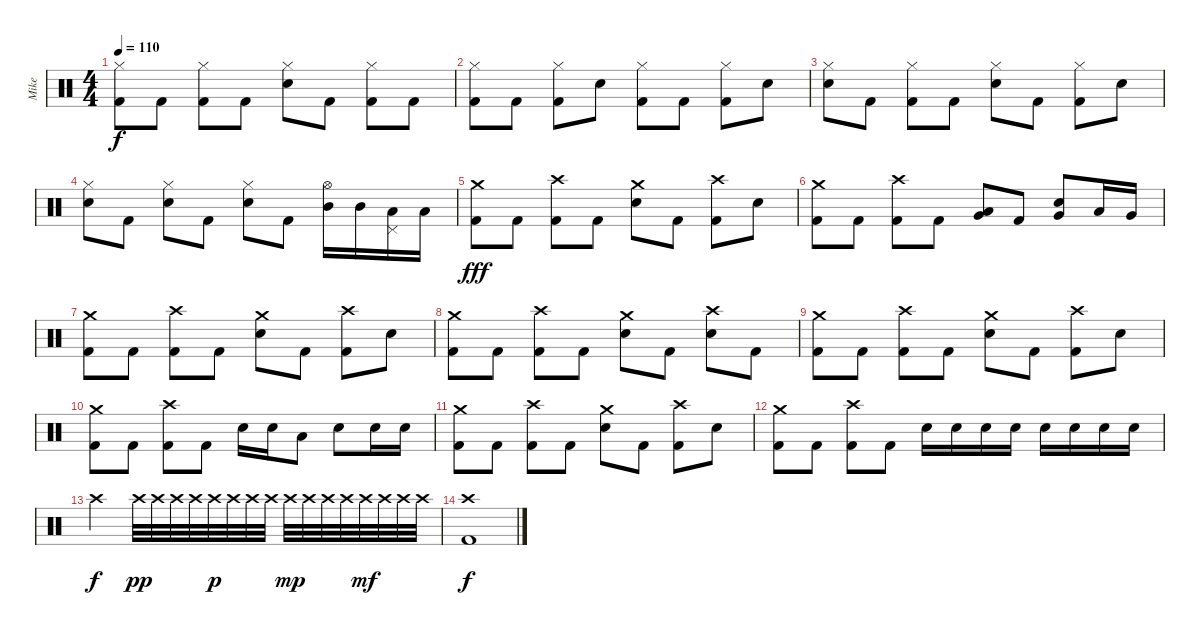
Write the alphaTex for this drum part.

\track ("Mike" "Mike") {instrument percussion}
\staff {score}
\articulation defaults
\ts (4 4)
\tempo 110
\clef neutral
\ks c
("Hi-Hat (closed)" "Kick (hit) 2").8{dy f} "Kick (hit) 2".8 ("Hi-Hat (closed)" "Kick (hit) 2").8 "Kick (hit) 2".8 ("Hi-Hat (closed)" "Electric Snare (hit)").8 "Kick (hit) 2".8 ("Hi-Hat (closed)" "Kick (hit) 2").8 "Kick (hit) 2".8 |
("Hi-Hat (closed)" "Kick (hit) 2").8 "Kick (hit) 2".8 ("Hi-Hat (closed)" "Kick (hit) 2").8 "Electric Snare (hit)".8 ("Hi-Hat (closed)" "Kick (hit) 2").8 "Kick (hit) 2".8 ("Hi-Hat (closed)" "Kick (hit) 2").8 "Electric Snare (hit)".8 |
("Hi-Hat (closed)" "Electric Snare (hit)").8 "Kick (hit) 2".8 ("Hi-Hat (closed)" "Kick (hit) 2").8 "Kick (hit) 2".8 ("Hi-Hat (closed)" "Electric Snare (hit)").8 "Kick (hit) 2".8 ("Hi-Hat (closed)" "Kick (hit) 2").8 "Electric Snare (hit)".8 |
("Hi-Hat (closed)" "Electric Snare (hit)").8 "Kick (hit) 2".8 ("Hi-Hat (closed)" "Electric Snare (hit)").8 "Kick (hit) 2".8 ("Hi-Hat (closed)" "Electric Snare (hit)").8 "Kick (hit) 2".8 ("Hi-Hat (open)" "Mid Tom (hit)").16 "Mid Tom (hit)".16 ("Pedal Hi-Hat (hit)" "Low Tom (hit)").16 "Low Tom (hit)".16 |
("Crash medium (hit)" "Kick (hit) 2").8{dy fff} "Kick (hit) 2".8 ("Crash high (hit)" "Kick (hit) 2").8 "Kick (hit) 2".8 ("Crash medium (hit)" "Electric Snare (hit)").8 "Kick (hit) 2".8 ("Crash high (hit)" "Kick (hit) 2").8 "Electric Snare (hit)".8 |
("Crash medium (hit)" "Kick (hit) 2").8 "Kick (hit) 2".8 ("Crash high (hit)" "Kick (hit) 2").8 "Kick (hit) 2".8 ("Low Tom (hit)" "Very Low Tom (hit)").8 "Kick (hit) 2".8 ("Electric Snare (hit)" "Very Low Tom (hit)").8 "Low Tom (hit)".16 "Very Low Tom (hit)".16 |
("Crash medium (hit)" "Kick (hit) 2").8 "Kick (hit) 2".8 ("Crash high (hit)" "Kick (hit) 2").8 "Kick (hit) 2".8 ("Crash medium (hit)" "Electric Snare (hit)").8 "Kick (hit) 2".8 ("Crash high (hit)" "Kick (hit) 2").8 "Electric Snare (hit)".8 |
("Crash medium (hit)" "Kick (hit) 2").8 "Kick (hit) 2".8 ("Crash high (hit)" "Kick (hit) 2").8 "Kick (hit) 2".8 ("Crash medium (hit)" "Electric Snare (hit)").8 "Kick (hit) 2".8 ("Crash high (hit)" "Electric Snare (hit)").8 "Kick (hit) 2".8 |
("Crash medium (hit)" "Kick (hit) 2").8 "Kick (hit) 2".8 ("Crash high (hit)" "Kick (hit) 2").8 "Kick (hit) 2".8 ("Crash medium (hit)" "Electric Snare (hit)").8 "Kick (hit) 2".8 ("Crash high (hit)" "Kick (hit) 2").8 "Electric Snare (hit)".8 |
("Crash medium (hit)" "Kick (hit) 2").8 "Kick (hit) 2".8 ("Crash high (hit)" "Kick (hit) 2").8 "Kick (hit) 2".8 "Electric Snare (hit)".16 "Electric Snare (hit)".16 "Low Tom (hit)".8 "Electric Snare (hit)".8 "Electric Snare (hit)".16 "Electric Snare (hit)".16 |
("Crash medium (hit)" "Kick (hit) 2").8 "Kick (hit) 2".8 ("Crash high (hit)" "Kick (hit) 2").8 "Kick (hit) 2".8 ("Crash medium (hit)" "Electric Snare (hit)").8 "Kick (hit) 2".8 ("Crash high (hit)" "Kick (hit) 2").8 "Electric Snare (hit)".8 |
("Crash medium (hit)" "Kick (hit) 2").8 "Kick (hit) 2".8 ("Crash high (hit)" "Kick (hit) 2").8 "Kick (hit) 2".8 "Electric Snare (hit)".16 "Electric Snare (hit)".16 "Electric Snare (hit)".16 "Electric Snare (hit)".16 "Electric Snare (hit)".16 "Electric Snare (hit)".16 "Electric Snare (hit)".16 "Electric Snare (hit)".16 |
"Crash high (hit)".2{dy f} "Crash high (hit)".32{dy pp} "Crash high (hit)".32 "Crash high (hit)".32 "Crash high (hit)".32 "Crash high (hit)".32{dy p} "Crash high (hit)".32 "Crash high (hit)".32 "Crash high (hit)".32 "Crash high (hit)".32{dy mp} "Crash high (hit)".32 "Crash high (hit)".32 "Crash high (hit)".32 "Crash high (hit)".32{dy mf} "Crash high (hit)".32 "Crash high (hit)".32 "Crash high (hit)".32 |
("Crash high (hit)" "Kick (hit) 2").1{dy f}
